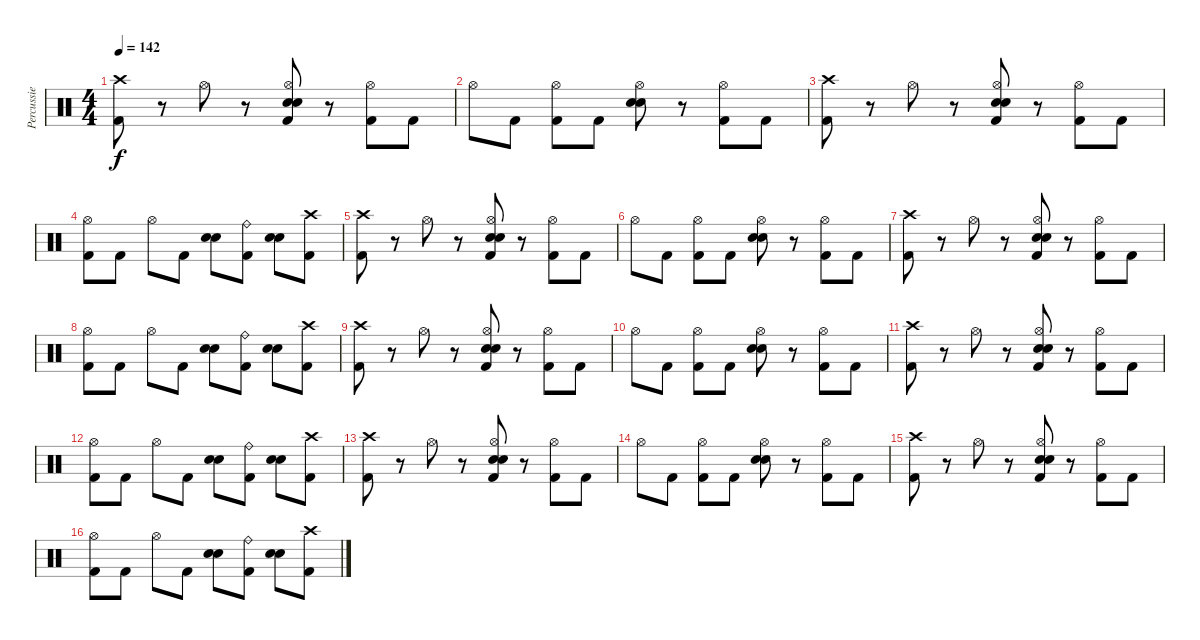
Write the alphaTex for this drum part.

\track ("Percussie" "Percussie") {instrument percussion}
\staff {score}
\articulation defaults
\ts (4 4)
\tempo 142
\clef neutral
\ks c
("Kick (hit) 2" "Crash high (hit)").8{dy f} r.8 "Hi-Hat (open)".8 r.8 ("Kick (hit) 2" "Electric Snare (hit)" "Hi-Hat (open)" "Snare (hit) 2").8 r.8 ("Kick (hit) 2" "Hi-Hat (open)").8 "Kick (hit) 2".8 |
"Hi-Hat (open)".8 "Kick (hit) 2".8 ("Kick (hit) 2" "Hi-Hat (open)").8 "Kick (hit) 2".8 ("Snare (hit) 2" "Electric Snare (hit)" "Hi-Hat (open)").8 r.8 ("Kick (hit) 2" "Hi-Hat (open)").8 "Kick (hit) 2".8 |
("Kick (hit) 2" "Crash high (hit)").8 r.8 "Hi-Hat (open)".8 r.8 ("Kick (hit) 2" "Electric Snare (hit)" "Hi-Hat (open)" "Snare (hit) 2").8 r.8 ("Kick (hit) 2" "Hi-Hat (open)").8 "Kick (hit) 2".8 |
("Kick (hit) 2" "Hi-Hat (open)").8 "Kick (hit) 2".8 "Hi-Hat (open)".8 "Kick (hit) 2".8 ("Snare (hit) 2" "Electric Snare (hit)").8 ("Kick (hit) 2" "Ride (bell)").8 ("Snare (hit) 2" "Electric Snare (hit)").8 ("Kick (hit) 2" "Crash high (hit)").8 |
("Kick (hit) 2" "Crash high (hit)").8 r.8 "Hi-Hat (open)".8 r.8 ("Kick (hit) 2" "Electric Snare (hit)" "Hi-Hat (open)" "Snare (hit) 2").8 r.8 ("Kick (hit) 2" "Hi-Hat (open)").8 "Kick (hit) 2".8 |
"Hi-Hat (open)".8 "Kick (hit) 2".8 ("Kick (hit) 2" "Hi-Hat (open)").8 "Kick (hit) 2".8 ("Snare (hit) 2" "Electric Snare (hit)" "Hi-Hat (open)").8 r.8 ("Kick (hit) 2" "Hi-Hat (open)").8 "Kick (hit) 2".8 |
("Kick (hit) 2" "Crash high (hit)").8 r.8 "Hi-Hat (open)".8 r.8 ("Kick (hit) 2" "Electric Snare (hit)" "Hi-Hat (open)" "Snare (hit) 2").8 r.8 ("Kick (hit) 2" "Hi-Hat (open)").8 "Kick (hit) 2".8 |
("Kick (hit) 2" "Hi-Hat (open)").8 "Kick (hit) 2".8 "Hi-Hat (open)".8 "Kick (hit) 2".8 ("Snare (hit) 2" "Electric Snare (hit)").8 ("Kick (hit) 2" "Ride (bell)").8 ("Snare (hit) 2" "Electric Snare (hit)").8 ("Kick (hit) 2" "Crash high (hit)").8 |
("Kick (hit) 2" "Crash high (hit)").8 r.8 "Hi-Hat (open)".8 r.8 ("Kick (hit) 2" "Electric Snare (hit)" "Hi-Hat (open)" "Snare (hit) 2").8 r.8 ("Kick (hit) 2" "Hi-Hat (open)").8 "Kick (hit) 2".8 |
"Hi-Hat (open)".8 "Kick (hit) 2".8 ("Kick (hit) 2" "Hi-Hat (open)").8 "Kick (hit) 2".8 ("Snare (hit) 2" "Electric Snare (hit)" "Hi-Hat (open)").8 r.8 ("Kick (hit) 2" "Hi-Hat (open)").8 "Kick (hit) 2".8 |
("Kick (hit) 2" "Crash high (hit)").8 r.8 "Hi-Hat (open)".8 r.8 ("Kick (hit) 2" "Electric Snare (hit)" "Hi-Hat (open)" "Snare (hit) 2").8 r.8 ("Kick (hit) 2" "Hi-Hat (open)").8 "Kick (hit) 2".8 |
("Kick (hit) 2" "Hi-Hat (open)").8 "Kick (hit) 2".8 "Hi-Hat (open)".8 "Kick (hit) 2".8 ("Snare (hit) 2" "Electric Snare (hit)").8 ("Kick (hit) 2" "Ride (bell)").8 ("Snare (hit) 2" "Electric Snare (hit)").8 ("Kick (hit) 2" "Crash high (hit)").8 |
("Kick (hit) 2" "Crash high (hit)").8 r.8 "Hi-Hat (open)".8 r.8 ("Kick (hit) 2" "Electric Snare (hit)" "Hi-Hat (open)" "Snare (hit) 2").8 r.8 ("Kick (hit) 2" "Hi-Hat (open)").8 "Kick (hit) 2".8 |
"Hi-Hat (open)".8 "Kick (hit) 2".8 ("Kick (hit) 2" "Hi-Hat (open)").8 "Kick (hit) 2".8 ("Snare (hit) 2" "Electric Snare (hit)" "Hi-Hat (open)").8 r.8 ("Kick (hit) 2" "Hi-Hat (open)").8 "Kick (hit) 2".8 |
("Kick (hit) 2" "Crash high (hit)").8 r.8 "Hi-Hat (open)".8 r.8 ("Kick (hit) 2" "Electric Snare (hit)" "Hi-Hat (open)" "Snare (hit) 2").8 r.8 ("Kick (hit) 2" "Hi-Hat (open)").8 "Kick (hit) 2".8 |
("Kick (hit) 2" "Hi-Hat (open)").8 "Kick (hit) 2".8 "Hi-Hat (open)".8 "Kick (hit) 2".8 ("Snare (hit) 2" "Electric Snare (hit)").8 ("Kick (hit) 2" "Ride (bell)").8 ("Snare (hit) 2" "Electric Snare (hit)").8 ("Kick (hit) 2" "Crash high (hit)").8
